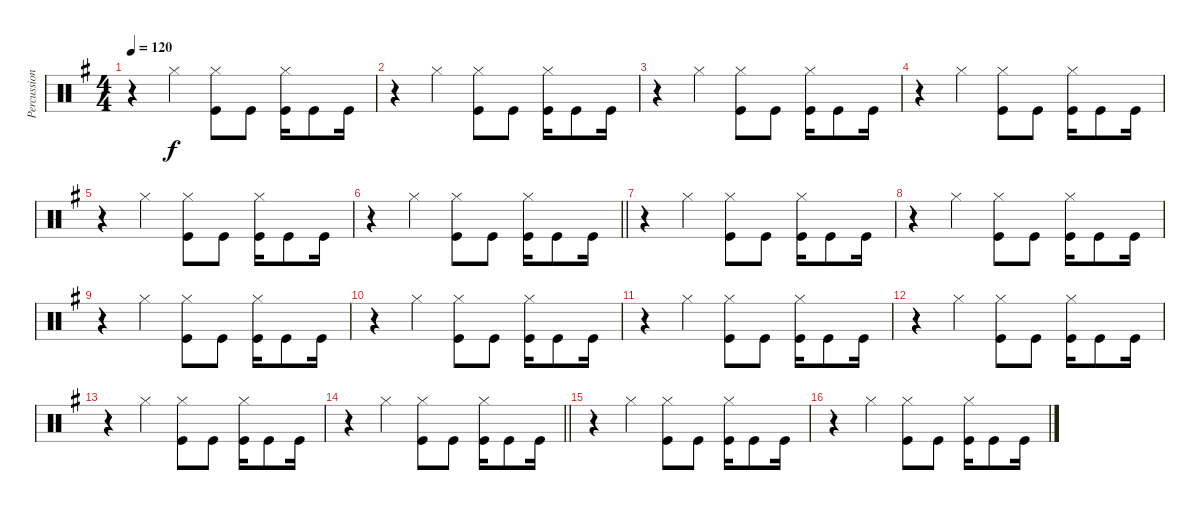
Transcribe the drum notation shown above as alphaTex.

\track ("Percussion" "Percussion") {instrument percussion}
\staff {score}
\articulation defaults
\ts (4 4)
\tempo 120
\clef neutral
\ks eminor
r.4{dy f} "Hi-Hat (closed)".4 ("Kick (hit)" "Hi-Hat (closed)").8 "Kick (hit)".8 ("Kick (hit)" "Hi-Hat (closed)").16 "Kick (hit)".8 "Kick (hit)".16 |
r.4 "Hi-Hat (closed)".4 ("Kick (hit)" "Hi-Hat (closed)").8 "Kick (hit)".8 ("Kick (hit)" "Hi-Hat (closed)").16 "Kick (hit)".8 "Kick (hit)".16 |
r.4 "Hi-Hat (closed)".4 ("Kick (hit)" "Hi-Hat (closed)").8 "Kick (hit)".8 ("Kick (hit)" "Hi-Hat (closed)").16 "Kick (hit)".8 "Kick (hit)".16 |
r.4 "Hi-Hat (closed)".4 ("Kick (hit)" "Hi-Hat (closed)").8 "Kick (hit)".8 ("Kick (hit)" "Hi-Hat (closed)").16 "Kick (hit)".8 "Kick (hit)".16 |
r.4 "Hi-Hat (closed)".4 ("Kick (hit)" "Hi-Hat (closed)").8 "Kick (hit)".8 ("Kick (hit)" "Hi-Hat (closed)").16 "Kick (hit)".8 "Kick (hit)".16 |
\barLineRight lightlight
r.4 "Hi-Hat (closed)".4 ("Kick (hit)" "Hi-Hat (closed)").8 "Kick (hit)".8 ("Kick (hit)" "Hi-Hat (closed)").16 "Kick (hit)".8 "Kick (hit)".16 |
r.4 "Hi-Hat (closed)".4 ("Kick (hit)" "Hi-Hat (closed)").8 "Kick (hit)".8 ("Kick (hit)" "Hi-Hat (closed)").16 "Kick (hit)".8 "Kick (hit)".16 |
r.4 "Hi-Hat (closed)".4 ("Kick (hit)" "Hi-Hat (closed)").8 "Kick (hit)".8 ("Kick (hit)" "Hi-Hat (closed)").16 "Kick (hit)".8 "Kick (hit)".16 |
r.4 "Hi-Hat (closed)".4 ("Kick (hit)" "Hi-Hat (closed)").8 "Kick (hit)".8 ("Kick (hit)" "Hi-Hat (closed)").16 "Kick (hit)".8 "Kick (hit)".16 |
r.4 "Hi-Hat (closed)".4 ("Kick (hit)" "Hi-Hat (closed)").8 "Kick (hit)".8 ("Kick (hit)" "Hi-Hat (closed)").16 "Kick (hit)".8 "Kick (hit)".16 |
r.4 "Hi-Hat (closed)".4 ("Kick (hit)" "Hi-Hat (closed)").8 "Kick (hit)".8 ("Kick (hit)" "Hi-Hat (closed)").16 "Kick (hit)".8 "Kick (hit)".16 |
r.4 "Hi-Hat (closed)".4 ("Kick (hit)" "Hi-Hat (closed)").8 "Kick (hit)".8 ("Kick (hit)" "Hi-Hat (closed)").16 "Kick (hit)".8 "Kick (hit)".16 |
r.4 "Hi-Hat (closed)".4 ("Kick (hit)" "Hi-Hat (closed)").8 "Kick (hit)".8 ("Kick (hit)" "Hi-Hat (closed)").16 "Kick (hit)".8 "Kick (hit)".16 |
\barLineRight lightlight
r.4 "Hi-Hat (closed)".4 ("Kick (hit)" "Hi-Hat (closed)").8 "Kick (hit)".8 ("Kick (hit)" "Hi-Hat (closed)").16 "Kick (hit)".8 "Kick (hit)".16 |
r.4 "Hi-Hat (closed)".4 ("Kick (hit)" "Hi-Hat (closed)").8 "Kick (hit)".8 ("Kick (hit)" "Hi-Hat (closed)").16 "Kick (hit)".8 "Kick (hit)".16 |
r.4 "Hi-Hat (closed)".4 ("Kick (hit)" "Hi-Hat (closed)").8 "Kick (hit)".8 ("Kick (hit)" "Hi-Hat (closed)").16 "Kick (hit)".8 "Kick (hit)".16
